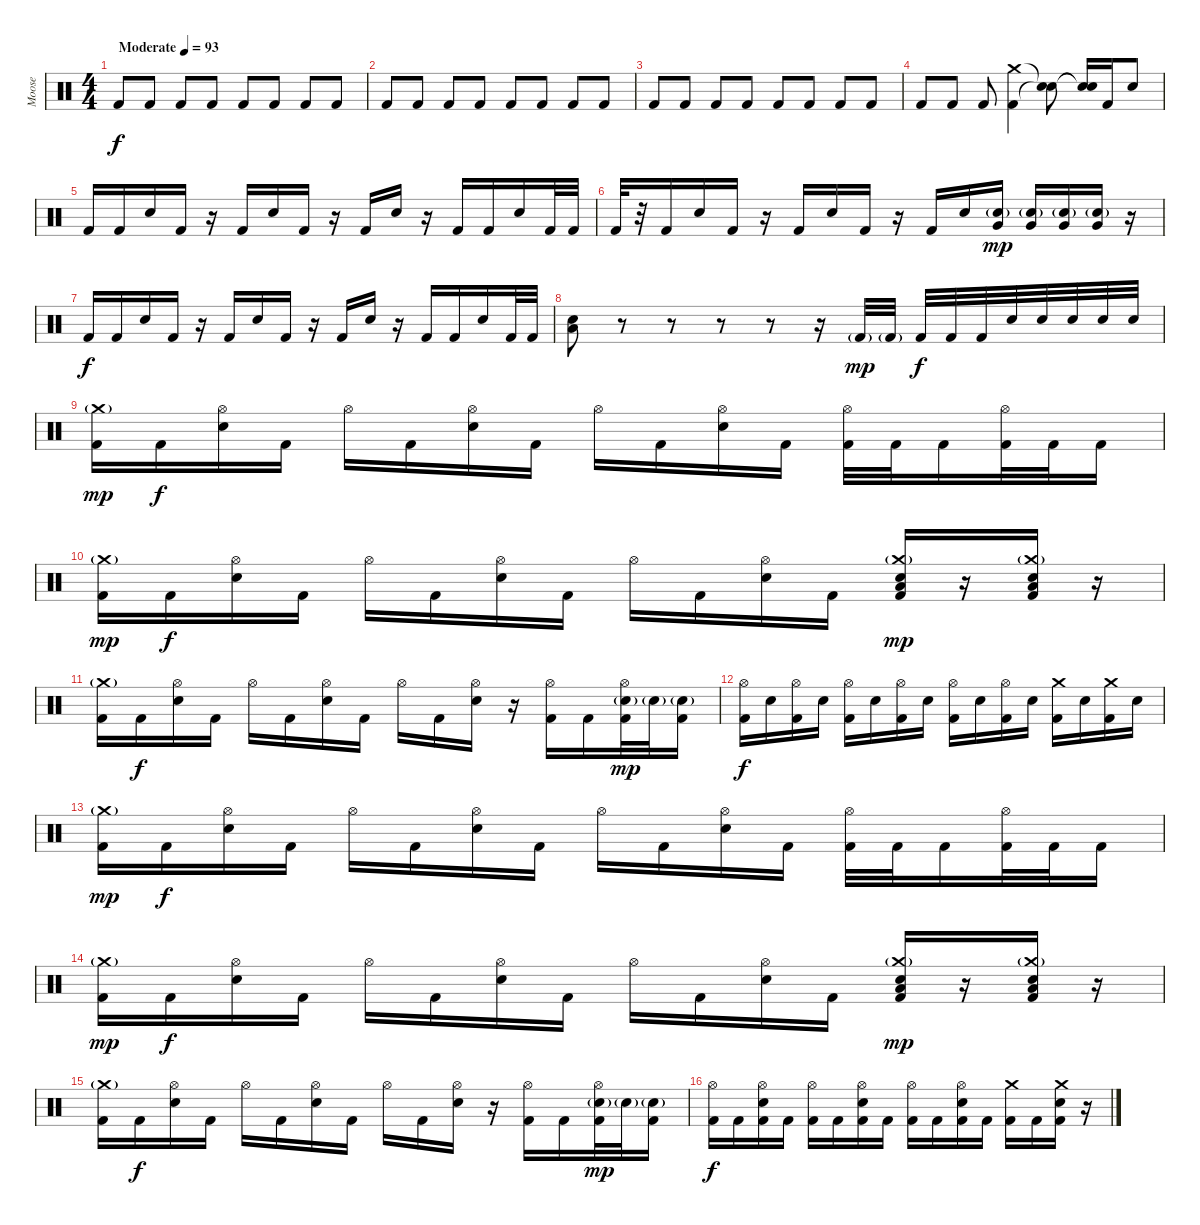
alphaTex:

\track ("Moose" "Moose") {instrument percussion}
\staff {score}
\articulation defaults
\ts (4 4)
\tempo (93 "Moderate")
\clef neutral
\ks c "Kick (hit) 2".8{dy f} "Kick (hit) 2".8 "Kick (hit) 2".8 "Kick (hit) 2".8 "Kick (hit) 2".8 "Kick (hit) 2".8 "Kick (hit) 2".8 "Kick (hit) 2".8
|
"Kick (hit) 2".8 "Kick (hit) 2".8 "Kick (hit) 2".8 "Kick (hit) 2".8 "Kick (hit) 2".8 "Kick (hit) 2".8 "Kick (hit) 2".8 "Kick (hit) 2".8 |
"Kick (hit) 2".8 "Kick (hit) 2".8 "Kick (hit) 2".8 "Kick (hit) 2".8 "Kick (hit) 2".8 "Kick (hit) 2".8 "Kick (hit) 2".8 "Kick (hit) 2".8 |
"Kick (hit) 2".8 "Kick (hit) 2".8 "Kick (hit) 2".8 ("Crash medium (hit)" "Kick (hit) 2").4 ("Snare (hit)"{t} "Snare (hit)"{t}).8 ("Snare (hit)"{t} "Snare (hit)"{t}).16 "Kick (hit) 2".16 "Electric Snare (hit)".8 |
"Kick (hit) 2".16 "Kick (hit) 2".16 "Electric Snare (hit)".16 "Kick (hit) 2".16 r.16 "Kick (hit) 2".16 "Electric Snare (hit)".16 "Kick (hit) 2".16 r.16 "Kick (hit) 2".16 "Electric Snare (hit)".16 r.16 "Kick (hit) 2".16 "Kick (hit) 2".16 "Electric Snare (hit)".16 "Kick (hit) 2".32 "Kick (hit) 2".32 |
"Kick (hit) 2".32 r.32 "Kick (hit) 2".16 "Electric Snare (hit)".16 "Kick (hit) 2".16 r.16 "Kick (hit) 2".16 "Electric Snare (hit)".16 "Kick (hit) 2".16 r.16 "Kick (hit) 2".16 "Electric Snare (hit)".16 ("Very Low Tom (hit)" "Electric Snare (hit)"{g}).16{dy mp} ("Very Low Tom (hit)" "Electric Snare (hit)"{g}).16 ("Very Low Tom (hit)" "Electric Snare (hit)"{g}).16 ("Very Low Tom (hit)" "Electric Snare (hit)"{g}).16 r.16 |
"Kick (hit) 2".16{dy f} "Kick (hit) 2".16 "Electric Snare (hit)".16 "Kick (hit) 2".16 r.16 "Kick (hit) 2".16 "Electric Snare (hit)".16 "Kick (hit) 2".16 r.16 "Kick (hit) 2".16 "Electric Snare (hit)".16 r.16 "Kick (hit) 2".16 "Kick (hit) 2".16 "Electric Snare (hit)".16 "Kick (hit) 2".32 "Kick (hit) 2".32 |
("Low Floor Tom (hit)" "Electric Snare (hit)").8 r.8 r.8 r.8 r.8 r.16 "Kick (hit) 2"{g}.32{dy mp} "Kick (hit) 2"{g}.32 "Kick (hit) 2".32{dy f} "Kick (hit) 2".32 "Kick (hit) 2".32 "Electric Snare (hit)".32 "Electric Snare (hit)".32 "Electric Snare (hit)".32 "Electric Snare (hit)".32 "Electric Snare (hit)".32 |
("Crash medium (hit)"{g} "Kick (hit) 2").16{dy mp} "Kick (hit) 2".16{dy f} ("Hi-Hat (open)" "Electric Snare (hit)").16 "Kick (hit) 2".16 "Hi-Hat (open)".16 "Kick (hit) 2".16 ("Hi-Hat (open)" "Electric Snare (hit)").16 "Kick (hit) 2".16 "Hi-Hat (open)".16 "Kick (hit) 2".16 ("Hi-Hat (open)" "Electric Snare (hit)").16 "Kick (hit) 2".16 ("Hi-Hat (open)" "Kick (hit) 2").32 "Kick (hit) 2".32 "Kick (hit) 2".16 ("Hi-Hat (open)" "Kick (hit) 2").32 "Kick (hit) 2".32 "Kick (hit) 2".16 |
("Crash medium (hit)"{g} "Kick (hit) 2").16{dy mp} "Kick (hit) 2".16{dy f} ("Hi-Hat (open)" "Electric Snare (hit)").16 "Kick (hit) 2".16 "Hi-Hat (open)".16 "Kick (hit) 2".16 ("Hi-Hat (open)" "Electric Snare (hit)").16 "Kick (hit) 2".16 "Hi-Hat (open)".16 "Kick (hit) 2".16 ("Hi-Hat (open)" "Electric Snare (hit)").16 "Kick (hit) 2".16 ("Crash medium (hit)"{g} "Low Floor Tom (hit)" "Electric Snare (hit)" "Kick (hit) 2").16{dy mp} r.16 ("Crash medium (hit)"{g} "Low Floor Tom (hit)" "Electric Snare (hit)" "Kick (hit) 2").16 r.16 |
("Crash medium (hit)"{g} "Kick (hit) 2").16 "Kick (hit) 2".16{dy f} ("Hi-Hat (open)" "Electric Snare (hit)").16 "Kick (hit) 2".16 "Hi-Hat (open)".16 "Kick (hit) 2".16 ("Hi-Hat (open)" "Electric Snare (hit)").16 "Kick (hit) 2".16 "Hi-Hat (open)".16 "Kick (hit) 2".16 ("Hi-Hat (open)" "Electric Snare (hit)").16 r.16 ("Hi-Hat (open)" "Kick (hit) 2").16 "Kick (hit) 2".16 ("Hi-Hat (open)" "Electric Snare (hit)"{g} "Kick (hit) 2").32{dy mp} "Electric Snare (hit)"{g}.32 ("Electric Snare (hit)"{g} "Kick (hit) 2").16 |
("Hi-Hat (open)" "Kick (hit) 2").16{dy f} "Electric Snare (hit)".16 ("Hi-Hat (open)" "Kick (hit) 2").16 "Electric Snare (hit)".16 ("Hi-Hat (open)" "Kick (hit) 2").16 "Electric Snare (hit)".16 ("Hi-Hat (open)" "Kick (hit) 2").16 "Electric Snare (hit)".16 ("Hi-Hat (open)" "Kick (hit) 2").16 "Electric Snare (hit)".16 ("Hi-Hat (open)" "Kick (hit) 2").16 "Electric Snare (hit)".16 ("Crash medium (hit)" "Kick (hit) 2").16 "Electric Snare (hit)".16 ("Crash medium (hit)" "Kick (hit) 2").16 "Electric Snare (hit)".16 |
("Crash medium (hit)"{g} "Kick (hit) 2").16{dy mp} "Kick (hit) 2".16{dy f} ("Hi-Hat (open)" "Electric Snare (hit)").16 "Kick (hit) 2".16 "Hi-Hat (open)".16 "Kick (hit) 2".16 ("Hi-Hat (open)" "Electric Snare (hit)").16 "Kick (hit) 2".16 "Hi-Hat (open)".16 "Kick (hit) 2".16 ("Hi-Hat (open)" "Electric Snare (hit)").16 "Kick (hit) 2".16 ("Hi-Hat (open)" "Kick (hit) 2").32 "Kick (hit) 2".32 "Kick (hit) 2".16 ("Hi-Hat (open)" "Kick (hit) 2").32 "Kick (hit) 2".32 "Kick (hit) 2".16 |
("Crash medium (hit)"{g} "Kick (hit) 2").16{dy mp} "Kick (hit) 2".16{dy f} ("Hi-Hat (open)" "Electric Snare (hit)").16 "Kick (hit) 2".16 "Hi-Hat (open)".16 "Kick (hit) 2".16 ("Hi-Hat (open)" "Electric Snare (hit)").16 "Kick (hit) 2".16 "Hi-Hat (open)".16 "Kick (hit) 2".16 ("Hi-Hat (open)" "Electric Snare (hit)").16 "Kick (hit) 2".16 ("Crash medium (hit)"{g} "Low Floor Tom (hit)" "Electric Snare (hit)" "Kick (hit) 2").16{dy mp} r.16 ("Crash medium (hit)"{g} "Low Floor Tom (hit)" "Electric Snare (hit)" "Kick (hit) 2").16 r.16 |
("Crash medium (hit)"{g} "Kick (hit) 2").16 "Kick (hit) 2".16{dy f} ("Hi-Hat (open)" "Electric Snare (hit)").16 "Kick (hit) 2".16 "Hi-Hat (open)".16 "Kick (hit) 2".16 ("Hi-Hat (open)" "Electric Snare (hit)").16 "Kick (hit) 2".16 "Hi-Hat (open)".16 "Kick (hit) 2".16 ("Hi-Hat (open)" "Electric Snare (hit)").16 r.16 ("Hi-Hat (open)" "Kick (hit) 2").16 "Kick (hit) 2".16 ("Hi-Hat (open)" "Electric Snare (hit)"{g} "Kick (hit) 2").32{dy mp} "Electric Snare (hit)"{g}.32 ("Electric Snare (hit)"{g} "Kick (hit) 2").16 |
("Hi-Hat (open)" "Kick (hit) 2").16{dy f} "Kick (hit) 2".16 ("Hi-Hat (open)" "Electric Snare (hit)" "Kick (hit) 2").16 "Kick (hit) 2".16 ("Hi-Hat (open)" "Kick (hit) 2").16 "Kick (hit) 2".16 ("Hi-Hat (open)" "Electric Snare (hit)" "Kick (hit) 2").16 "Kick (hit) 2".16 ("Hi-Hat (open)" "Kick (hit) 2").16 "Kick (hit) 2".16 ("Hi-Hat (open)" "Electric Snare (hit)" "Kick (hit) 2").16 "Kick (hit) 2".16 ("Crash medium (hit)" "Kick (hit) 2").16 "Kick (hit) 2".16 ("Crash medium (hit)" "Electric Snare (hit)" "Kick (hit) 2").16 r.16
